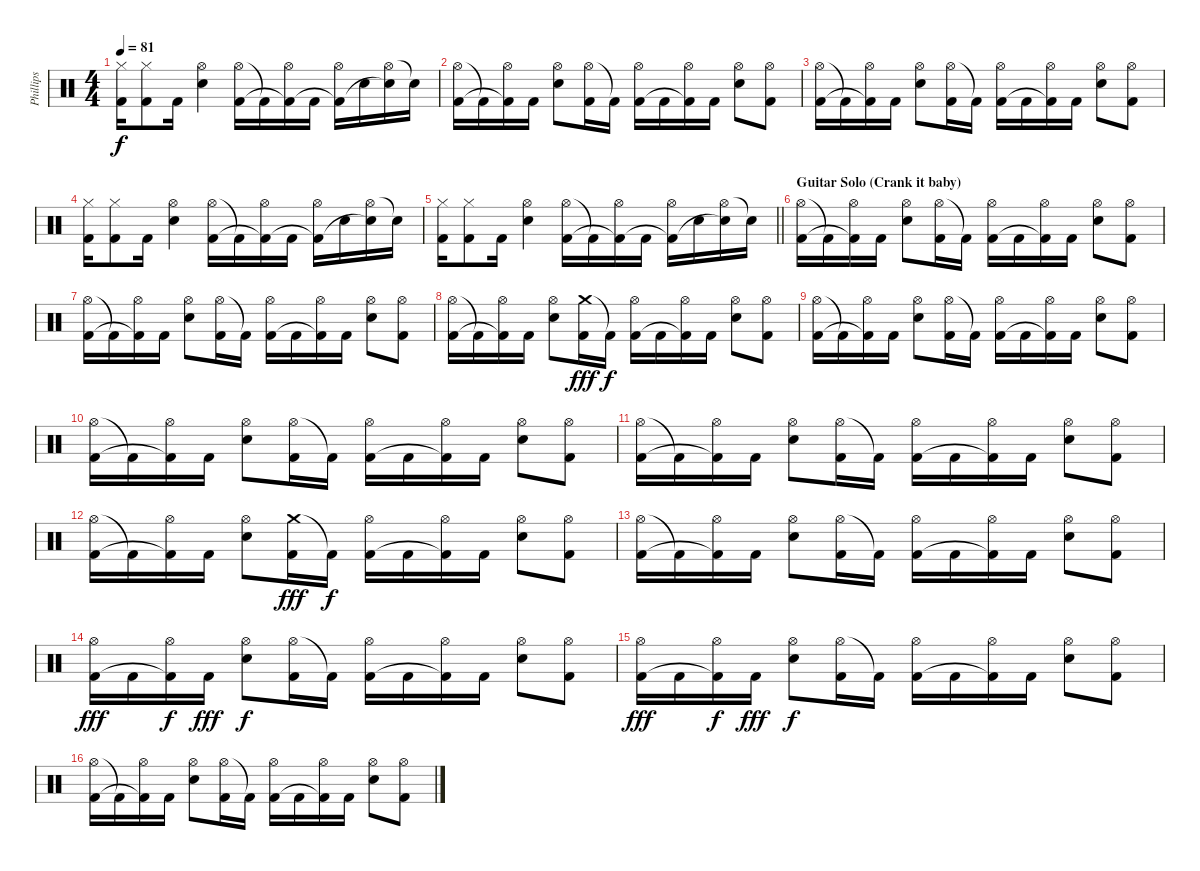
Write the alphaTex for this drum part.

\track ("Phillips" "Phillips") {instrument percussion}
\staff {score}
\articulation defaults
\ts (4 4)
\tempo 81
\clef neutral
\ks c
("Hi-Hat (closed)" "Kick (hit) 2").16{dy f} ("Hi-Hat (closed)" "Kick (hit) 2").8 "Kick (hit) 2".16 ("Hi-Hat (open)" "Snare (hit) 2").4 ("Hi-Hat (open)" "Kick (hit) 2").16 "Kick (hit) 2"{t}.16 ("Hi-Hat (open)" "Kick (hit) 2"{t}).16 "Kick (hit) 2".16 ("Hi-Hat (open)" "Kick (hit) 2"{t}).16 "Snare (hit) 2".16 ("Hi-Hat (open)" "Snare (hit) 2"{t}).16 "Snare (hit) 2"{t}.16 |
("Hi-Hat (open)" "Kick (hit) 2").16 "Kick (hit) 2"{t}.16 ("Hi-Hat (open)" "Kick (hit) 2"{t}).16 "Kick (hit) 2".16 ("Hi-Hat (open)" "Snare (hit) 2").8 ("Hi-Hat (open)" "Kick (hit) 2").16 "Kick (hit) 2"{t}.16 ("Hi-Hat (open)" "Kick (hit) 2").16 "Kick (hit) 2".16 ("Hi-Hat (open)" "Kick (hit) 2"{t}).16 "Kick (hit) 2".16 ("Hi-Hat (open)" "Snare (hit) 2").8 ("Hi-Hat (open)" "Kick (hit) 2").8 |
("Hi-Hat (open)" "Kick (hit) 2").16 "Kick (hit) 2"{t}.16 ("Hi-Hat (open)" "Kick (hit) 2"{t}).16 "Kick (hit) 2".16 ("Hi-Hat (open)" "Snare (hit) 2").8 ("Hi-Hat (open)" "Kick (hit) 2").16 "Kick (hit) 2"{t}.16 ("Hi-Hat (open)" "Kick (hit) 2").16 "Kick (hit) 2".16 ("Hi-Hat (open)" "Kick (hit) 2"{t}).16 "Kick (hit) 2".16 ("Hi-Hat (open)" "Snare (hit) 2").8 ("Hi-Hat (open)" "Kick (hit) 2").8 |
("Hi-Hat (closed)" "Kick (hit) 2").16 ("Hi-Hat (closed)" "Kick (hit) 2").8 "Kick (hit) 2".16 ("Hi-Hat (open)" "Snare (hit) 2").4 ("Hi-Hat (open)" "Kick (hit) 2").16 "Kick (hit) 2"{t}.16 ("Hi-Hat (open)" "Kick (hit) 2"{t}).16 "Kick (hit) 2".16 ("Hi-Hat (open)" "Kick (hit) 2"{t}).16 "Snare (hit) 2".16 ("Hi-Hat (open)" "Snare (hit) 2"{t}).16 "Snare (hit) 2"{t}.16 |
\barLineRight lightlight
("Hi-Hat (closed)" "Kick (hit) 2").16 ("Hi-Hat (closed)" "Kick (hit) 2").8 "Kick (hit) 2".16 ("Hi-Hat (open)" "Snare (hit) 2").4 ("Hi-Hat (open)" "Kick (hit) 2").16 "Kick (hit) 2"{t}.16 ("Hi-Hat (open)" "Kick (hit) 2"{t}).16 "Kick (hit) 2".16 ("Hi-Hat (open)" "Kick (hit) 2"{t}).16 "Snare (hit) 2".16 ("Hi-Hat (open)" "Snare (hit) 2"{t}).16 "Snare (hit) 2"{t}.16 |
\section ("" "Guitar Solo (Crank it baby)")
("Hi-Hat (open)" "Kick (hit) 2").16 "Kick (hit) 2"{t}.16 ("Hi-Hat (open)" "Kick (hit) 2"{t}).16 "Kick (hit) 2".16 ("Hi-Hat (open)" "Snare (hit) 2").8 ("Hi-Hat (open)" "Kick (hit) 2").16 "Kick (hit) 2"{t}.16 ("Hi-Hat (open)" "Kick (hit) 2").16 "Kick (hit) 2".16 ("Hi-Hat (open)" "Kick (hit) 2"{t}).16 "Kick (hit) 2".16 ("Hi-Hat (open)" "Snare (hit) 2").8 ("Hi-Hat (open)" "Kick (hit) 2").8 |
("Hi-Hat (open)" "Kick (hit) 2").16 "Kick (hit) 2"{t}.16 ("Hi-Hat (open)" "Kick (hit) 2"{t}).16 "Kick (hit) 2".16 ("Hi-Hat (open)" "Snare (hit) 2").8 ("Hi-Hat (open)" "Kick (hit) 2").16 "Kick (hit) 2"{t}.16 ("Hi-Hat (open)" "Kick (hit) 2").16 "Kick (hit) 2".16 ("Hi-Hat (open)" "Kick (hit) 2"{t}).16 "Kick (hit) 2".16 ("Hi-Hat (open)" "Snare (hit) 2").8 ("Hi-Hat (open)" "Kick (hit) 2").8 |
("Hi-Hat (open)" "Kick (hit) 2").16 "Kick (hit) 2"{t}.16 ("Hi-Hat (open)" "Kick (hit) 2"{t}).16 "Kick (hit) 2".16 ("Hi-Hat (open)" "Snare (hit) 2").8 ("Crash medium (hit)" "Kick (hit) 2").16{dy fff} "Kick (hit) 2"{t}.16{dy f} ("Hi-Hat (open)" "Kick (hit) 2").16 "Kick (hit) 2".16 ("Hi-Hat (open)" "Kick (hit) 2"{t}).16 "Kick (hit) 2".16 ("Hi-Hat (open)" "Snare (hit) 2").8 ("Hi-Hat (open)" "Kick (hit) 2").8 |
("Hi-Hat (open)" "Kick (hit) 2").16 "Kick (hit) 2"{t}.16 ("Hi-Hat (open)" "Kick (hit) 2"{t}).16 "Kick (hit) 2".16 ("Hi-Hat (open)" "Snare (hit) 2").8 ("Hi-Hat (open)" "Kick (hit) 2").16 "Kick (hit) 2"{t}.16 ("Hi-Hat (open)" "Kick (hit) 2").16 "Kick (hit) 2".16 ("Hi-Hat (open)" "Kick (hit) 2"{t}).16 "Kick (hit) 2".16 ("Hi-Hat (open)" "Snare (hit) 2").8 ("Hi-Hat (open)" "Kick (hit) 2").8 |
("Hi-Hat (open)" "Kick (hit) 2").16 "Kick (hit) 2"{t}.16 ("Hi-Hat (open)" "Kick (hit) 2"{t}).16 "Kick (hit) 2".16 ("Hi-Hat (open)" "Snare (hit) 2").8 ("Hi-Hat (open)" "Kick (hit) 2").16 "Kick (hit) 2"{t}.16 ("Hi-Hat (open)" "Kick (hit) 2").16 "Kick (hit) 2".16 ("Hi-Hat (open)" "Kick (hit) 2"{t}).16 "Kick (hit) 2".16 ("Hi-Hat (open)" "Snare (hit) 2").8 ("Hi-Hat (open)" "Kick (hit) 2").8 |
("Hi-Hat (open)" "Kick (hit) 2").16 "Kick (hit) 2"{t}.16 ("Hi-Hat (open)" "Kick (hit) 2"{t}).16 "Kick (hit) 2".16 ("Hi-Hat (open)" "Snare (hit) 2").8 ("Hi-Hat (open)" "Kick (hit) 2").16 "Kick (hit) 2"{t}.16 ("Hi-Hat (open)" "Kick (hit) 2").16 "Kick (hit) 2".16 ("Hi-Hat (open)" "Kick (hit) 2"{t}).16 "Kick (hit) 2".16 ("Hi-Hat (open)" "Snare (hit) 2").8 ("Hi-Hat (open)" "Kick (hit) 2").8 |
("Hi-Hat (open)" "Kick (hit) 2").16 "Kick (hit) 2"{t}.16 ("Hi-Hat (open)" "Kick (hit) 2"{t}).16 "Kick (hit) 2".16 ("Hi-Hat (open)" "Snare (hit) 2").8 ("Crash medium (hit)" "Kick (hit) 2").16{dy fff} "Kick (hit) 2"{t}.16{dy f} ("Hi-Hat (open)" "Kick (hit) 2").16 "Kick (hit) 2".16 ("Hi-Hat (open)" "Kick (hit) 2"{t}).16 "Kick (hit) 2".16 ("Hi-Hat (open)" "Snare (hit) 2").8 ("Hi-Hat (open)" "Kick (hit) 2").8 |
("Hi-Hat (open)" "Kick (hit) 2").16 "Kick (hit) 2"{t}.16 ("Hi-Hat (open)" "Kick (hit) 2"{t}).16 "Kick (hit) 2".16 ("Hi-Hat (open)" "Snare (hit) 2").8 ("Hi-Hat (open)" "Kick (hit) 2").16 "Kick (hit) 2"{t}.16 ("Hi-Hat (open)" "Kick (hit) 2").16 "Kick (hit) 2".16 ("Hi-Hat (open)" "Kick (hit) 2"{t}).16 "Kick (hit) 2".16 ("Hi-Hat (open)" "Snare (hit) 2").8 ("Hi-Hat (open)" "Kick (hit) 2").8 |
("Hi-Hat (open)" "Kick (hit) 2").16{dy fff} "Kick (hit) 2".16 ("Hi-Hat (open)" "Kick (hit) 2"{t}).16{dy f} "Kick (hit) 2".16{dy fff} ("Hi-Hat (open)" "Snare (hit) 2").8{dy f} ("Hi-Hat (open)" "Kick (hit) 2").16 "Kick (hit) 2"{t}.16 ("Hi-Hat (open)" "Kick (hit) 2").16 "Kick (hit) 2".16 ("Hi-Hat (open)" "Kick (hit) 2"{t}).16 "Kick (hit) 2".16 ("Hi-Hat (open)" "Snare (hit) 2").8 ("Hi-Hat (open)" "Kick (hit) 2").8 |
("Hi-Hat (open)" "Kick (hit) 2").16{dy fff} "Kick (hit) 2".16 ("Hi-Hat (open)" "Kick (hit) 2"{t}).16{dy f} "Kick (hit) 2".16{dy fff} ("Hi-Hat (open)" "Snare (hit) 2").8{dy f} ("Hi-Hat (open)" "Kick (hit) 2").16 "Kick (hit) 2"{t}.16 ("Hi-Hat (open)" "Kick (hit) 2").16 "Kick (hit) 2".16 ("Hi-Hat (open)" "Kick (hit) 2"{t}).16 "Kick (hit) 2".16 ("Hi-Hat (open)" "Snare (hit) 2").8 ("Hi-Hat (open)" "Kick (hit) 2").8 |
("Hi-Hat (open)" "Kick (hit) 2").16 "Kick (hit) 2"{t}.16 ("Hi-Hat (open)" "Kick (hit) 2"{t}).16 "Kick (hit) 2".16 ("Hi-Hat (open)" "Snare (hit) 2").8 ("Hi-Hat (open)" "Kick (hit) 2").16 "Kick (hit) 2"{t}.16 ("Hi-Hat (open)" "Kick (hit) 2").16 "Kick (hit) 2".16 ("Hi-Hat (open)" "Kick (hit) 2"{t}).16 "Kick (hit) 2".16 ("Hi-Hat (open)" "Snare (hit) 2").8 ("Hi-Hat (open)" "Kick (hit) 2").8
